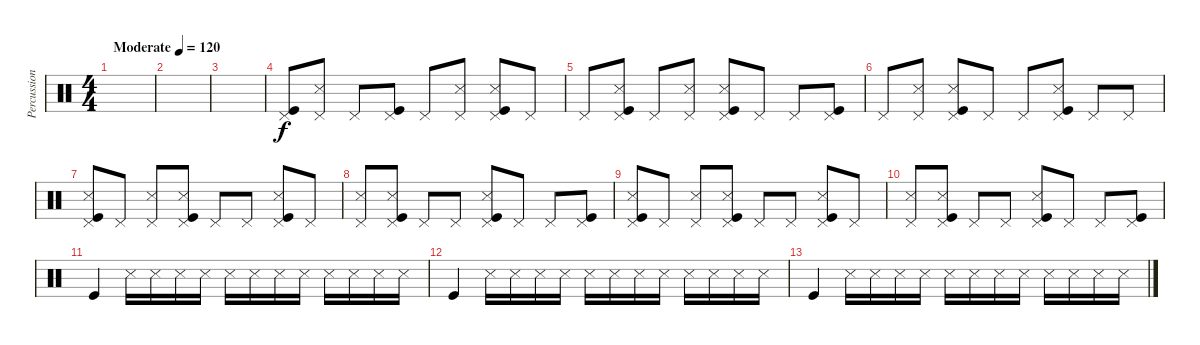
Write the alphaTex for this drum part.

\track ("Percussion" "Percussion") {instrument percussion}
\staff {score}
\articulation defaults
\ts (4 4)
\tempo (120 "Moderate")
\clef neutral
\ks c
|
|
|
("Pedal Hi-Hat (hit)" "Kick (hit)").8 ("Pedal Hi-Hat (hit)" "Snare (side stick) 3").8 "Pedal Hi-Hat (hit)".8 ("Pedal Hi-Hat (hit)" "Kick (hit)").8 "Pedal Hi-Hat (hit)".8 ("Pedal Hi-Hat (hit)" "Snare (side stick) 3").8 ("Pedal Hi-Hat (hit)" "Snare (side stick) 3" "Kick (hit)").8 "Pedal Hi-Hat (hit)".8 |
"Pedal Hi-Hat (hit)".8 ("Pedal Hi-Hat (hit)" "Snare (side stick) 3" "Kick (hit)").8 "Pedal Hi-Hat (hit)".8 ("Pedal Hi-Hat (hit)" "Snare (side stick) 3").8 ("Pedal Hi-Hat (hit)" "Snare (side stick) 3" "Kick (hit)").8 "Pedal Hi-Hat (hit)".8 "Pedal Hi-Hat (hit)".8 ("Pedal Hi-Hat (hit)" "Kick (hit)").8 |
"Pedal Hi-Hat (hit)".8 ("Pedal Hi-Hat (hit)" "Snare (side stick) 3").8 ("Pedal Hi-Hat (hit)" "Snare (side stick) 3" "Kick (hit)").8 "Pedal Hi-Hat (hit)".8 "Pedal Hi-Hat (hit)".8 ("Pedal Hi-Hat (hit)" "Snare (side stick) 3" "Kick (hit)").8 "Pedal Hi-Hat (hit)".8 "Pedal Hi-Hat (hit)".8 |
("Pedal Hi-Hat (hit)" "Snare (side stick) 3" "Kick (hit)").8 "Pedal Hi-Hat (hit)".8 ("Pedal Hi-Hat (hit)" "Snare (side stick) 3").8 ("Pedal Hi-Hat (hit)" "Snare (side stick) 3" "Kick (hit)").8 "Pedal Hi-Hat (hit)".8 "Pedal Hi-Hat (hit)".8 ("Pedal Hi-Hat (hit)" "Snare (side stick) 3" "Kick (hit)").8 "Pedal Hi-Hat (hit)".8 |
("Pedal Hi-Hat (hit)" "Snare (side stick) 3").8 ("Pedal Hi-Hat (hit)" "Snare (side stick) 3" "Kick (hit)").8 "Pedal Hi-Hat (hit)".8 "Pedal Hi-Hat (hit)".8 ("Pedal Hi-Hat (hit)" "Snare (side stick) 3" "Kick (hit)").8 "Pedal Hi-Hat (hit)".8 "Pedal Hi-Hat (hit)".8 ("Pedal Hi-Hat (hit)" "Kick (hit)").8 |
("Pedal Hi-Hat (hit)" "Snare (side stick) 3" "Kick (hit)").8 "Pedal Hi-Hat (hit)".8 ("Pedal Hi-Hat (hit)" "Snare (side stick) 3").8 ("Pedal Hi-Hat (hit)" "Snare (side stick) 3" "Kick (hit)").8 "Pedal Hi-Hat (hit)".8 "Pedal Hi-Hat (hit)".8 ("Pedal Hi-Hat (hit)" "Snare (side stick) 3" "Kick (hit)").8 "Pedal Hi-Hat (hit)".8 |
("Pedal Hi-Hat (hit)" "Snare (side stick) 3").8 ("Pedal Hi-Hat (hit)" "Snare (side stick) 3" "Kick (hit)").8 "Pedal Hi-Hat (hit)".8 "Pedal Hi-Hat (hit)".8 ("Pedal Hi-Hat (hit)" "Snare (side stick) 3" "Kick (hit)").8 "Pedal Hi-Hat (hit)".8 "Pedal Hi-Hat (hit)".8 ("Pedal Hi-Hat (hit)" "Kick (hit)").8 |
"Kick (hit)".4 "Snare (side stick) 3".16 "Snare (side stick) 3".16 "Snare (side stick) 3".16 "Snare (side stick) 3".16 "Snare (side stick) 3".16 "Snare (side stick) 3".16 "Snare (side stick) 3".16 "Snare (side stick) 3".16 "Snare (side stick) 3".16 "Snare (side stick) 3".16 "Snare (side stick) 3".16 "Snare (side stick) 3".16 |
"Kick (hit)".4 "Snare (side stick) 3".16 "Snare (side stick) 3".16 "Snare (side stick) 3".16 "Snare (side stick) 3".16 "Snare (side stick) 3".16 "Snare (side stick) 3".16 "Snare (side stick) 3".16 "Snare (side stick) 3".16 "Snare (side stick) 3".16 "Snare (side stick) 3".16 "Snare (side stick) 3".16 "Snare (side stick) 3".16 |
"Kick (hit)".4 "Snare (side stick) 3".16 "Snare (side stick) 3".16 "Snare (side stick) 3".16 "Snare (side stick) 3".16 "Snare (side stick) 3".16 "Snare (side stick) 3".16 "Snare (side stick) 3".16 "Snare (side stick) 3".16 "Snare (side stick) 3".16 "Snare (side stick) 3".16 "Snare (side stick) 3".16 "Snare (side stick) 3".16
